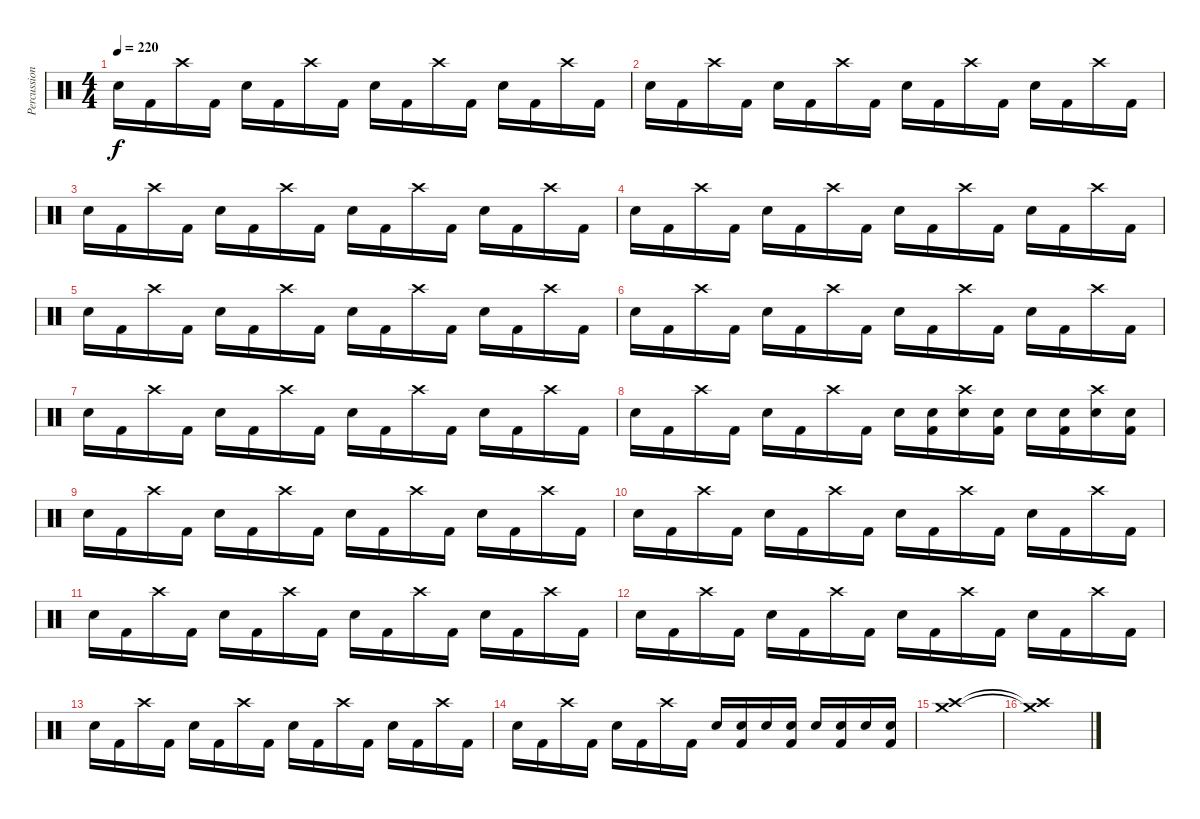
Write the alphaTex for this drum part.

\track ("Percussion" "Percussion") {instrument percussion}
\staff {score}
\articulation defaults
\ts (4 4)
\tempo 220
\clef neutral
\ks c "Electric Snare (hit)".16{dy f} "Kick (hit) 2".16 "Crash high (hit)".16 "Kick (hit) 2".16 "Electric Snare (hit)".16 "Kick (hit) 2".16 "Crash high (hit)".16 "Kick (hit) 2".16 "Electric Snare (hit)".16 "Kick (hit) 2".16 "Crash high (hit)".16 "Kick (hit) 2".16 "Electric Snare (hit)".16 "Kick (hit) 2".16 "Crash high (hit)".16 "Kick (hit) 2".16
|
"Electric Snare (hit)".16 "Kick (hit) 2".16 "Crash high (hit)".16 "Kick (hit) 2".16 "Electric Snare (hit)".16 "Kick (hit) 2".16 "Crash high (hit)".16 "Kick (hit) 2".16 "Electric Snare (hit)".16 "Kick (hit) 2".16 "Crash high (hit)".16 "Kick (hit) 2".16 "Electric Snare (hit)".16 "Kick (hit) 2".16 "Crash high (hit)".16 "Kick (hit) 2".16 |
"Electric Snare (hit)".16 "Kick (hit) 2".16 "Crash high (hit)".16 "Kick (hit) 2".16 "Electric Snare (hit)".16 "Kick (hit) 2".16 "Crash high (hit)".16 "Kick (hit) 2".16 "Electric Snare (hit)".16 "Kick (hit) 2".16 "Crash high (hit)".16 "Kick (hit) 2".16 "Electric Snare (hit)".16 "Kick (hit) 2".16 "Crash high (hit)".16 "Kick (hit) 2".16 |
"Electric Snare (hit)".16 "Kick (hit) 2".16 "Crash high (hit)".16 "Kick (hit) 2".16 "Electric Snare (hit)".16 "Kick (hit) 2".16 "Crash high (hit)".16 "Kick (hit) 2".16 "Electric Snare (hit)".16 "Kick (hit) 2".16 "Crash high (hit)".16 "Kick (hit) 2".16 "Electric Snare (hit)".16 "Kick (hit) 2".16 "Crash high (hit)".16 "Kick (hit) 2".16 |
"Electric Snare (hit)".16 "Kick (hit) 2".16 "Crash high (hit)".16 "Kick (hit) 2".16 "Electric Snare (hit)".16 "Kick (hit) 2".16 "Crash high (hit)".16 "Kick (hit) 2".16 "Electric Snare (hit)".16 "Kick (hit) 2".16 "Crash high (hit)".16 "Kick (hit) 2".16 "Electric Snare (hit)".16 "Kick (hit) 2".16 "Crash high (hit)".16 "Kick (hit) 2".16 |
"Electric Snare (hit)".16 "Kick (hit) 2".16 "Crash high (hit)".16 "Kick (hit) 2".16 "Electric Snare (hit)".16 "Kick (hit) 2".16 "Crash high (hit)".16 "Kick (hit) 2".16 "Electric Snare (hit)".16 "Kick (hit) 2".16 "Crash high (hit)".16 "Kick (hit) 2".16 "Electric Snare (hit)".16 "Kick (hit) 2".16 "Crash high (hit)".16 "Kick (hit) 2".16 |
"Electric Snare (hit)".16 "Kick (hit) 2".16 "Crash high (hit)".16 "Kick (hit) 2".16 "Electric Snare (hit)".16 "Kick (hit) 2".16 "Crash high (hit)".16 "Kick (hit) 2".16 "Electric Snare (hit)".16 "Kick (hit) 2".16 "Crash high (hit)".16 "Kick (hit) 2".16 "Electric Snare (hit)".16 "Kick (hit) 2".16 "Crash high (hit)".16 "Kick (hit) 2".16 |
"Electric Snare (hit)".16 "Kick (hit) 2".16 "Crash high (hit)".16 "Kick (hit) 2".16 "Electric Snare (hit)".16 "Kick (hit) 2".16 "Crash high (hit)".16 "Kick (hit) 2".16 "Electric Snare (hit)".16 ("Electric Snare (hit)" "Kick (hit) 2").16 ("Crash high (hit)" "Electric Snare (hit)").16 ("Electric Snare (hit)" "Kick (hit) 2").16 "Electric Snare (hit)".16 ("Electric Snare (hit)" "Kick (hit) 2").16 ("Crash high (hit)" "Electric Snare (hit)").16 ("Electric Snare (hit)" "Kick (hit) 2").16 |
"Electric Snare (hit)".16 "Kick (hit) 2".16 "Crash high (hit)".16 "Kick (hit) 2".16 "Electric Snare (hit)".16 "Kick (hit) 2".16 "Crash high (hit)".16 "Kick (hit) 2".16 "Electric Snare (hit)".16 "Kick (hit) 2".16 "Crash high (hit)".16 "Kick (hit) 2".16 "Electric Snare (hit)".16 "Kick (hit) 2".16 "Crash high (hit)".16 "Kick (hit) 2".16 |
"Electric Snare (hit)".16 "Kick (hit) 2".16 "Crash high (hit)".16 "Kick (hit) 2".16 "Electric Snare (hit)".16 "Kick (hit) 2".16 "Crash high (hit)".16 "Kick (hit) 2".16 "Electric Snare (hit)".16 "Kick (hit) 2".16 "Crash high (hit)".16 "Kick (hit) 2".16 "Electric Snare (hit)".16 "Kick (hit) 2".16 "Crash high (hit)".16 "Kick (hit) 2".16 |
"Electric Snare (hit)".16 "Kick (hit) 2".16 "Crash high (hit)".16 "Kick (hit) 2".16 "Electric Snare (hit)".16 "Kick (hit) 2".16 "Crash high (hit)".16 "Kick (hit) 2".16 "Electric Snare (hit)".16 "Kick (hit) 2".16 "Crash high (hit)".16 "Kick (hit) 2".16 "Electric Snare (hit)".16 "Kick (hit) 2".16 "Crash high (hit)".16 "Kick (hit) 2".16 |
"Electric Snare (hit)".16 "Kick (hit) 2".16 "Crash high (hit)".16 "Kick (hit) 2".16 "Electric Snare (hit)".16 "Kick (hit) 2".16 "Crash high (hit)".16 "Kick (hit) 2".16 "Electric Snare (hit)".16 "Kick (hit) 2".16 "Crash high (hit)".16 "Kick (hit) 2".16 "Electric Snare (hit)".16 "Kick (hit) 2".16 "Crash high (hit)".16 "Kick (hit) 2".16 |
"Electric Snare (hit)".16 "Kick (hit) 2".16 "Crash high (hit)".16 "Kick (hit) 2".16 "Electric Snare (hit)".16 "Kick (hit) 2".16 "Crash high (hit)".16 "Kick (hit) 2".16 "Electric Snare (hit)".16 "Kick (hit) 2".16 "Crash high (hit)".16 "Kick (hit) 2".16 "Electric Snare (hit)".16 "Kick (hit) 2".16 "Crash high (hit)".16 "Kick (hit) 2".16 |
"Electric Snare (hit)".16 "Kick (hit) 2".16 "Crash high (hit)".16 "Kick (hit) 2".16 "Electric Snare (hit)".16 "Kick (hit) 2".16 "Crash high (hit)".16 "Kick (hit) 2".16 "Electric Snare (hit)".16 ("Electric Snare (hit)" "Kick (hit) 2").16 "Electric Snare (hit)".16 ("Electric Snare (hit)" "Kick (hit) 2").16 "Electric Snare (hit)".16 ("Electric Snare (hit)" "Kick (hit) 2").16 "Electric Snare (hit)".16 ("Electric Snare (hit)" "Kick (hit) 2").16 |
("Crash high (hit)" "Crash medium (hit)").1 |
("Crash high (hit)"{t} "Crash medium (hit)"{t}).1
